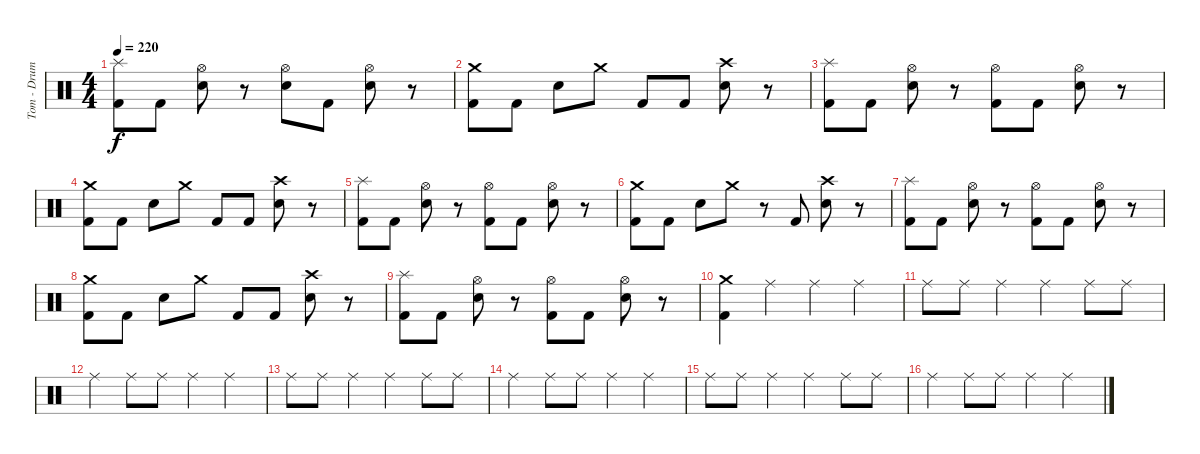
\track ("Tom - Drums" "Tom - Drum") {instrument percussion}
\staff {score}
\articulation defaults
\ts (4 4)
\tempo 220
\clef neutral
\ks c
("Splash (hit)" "Kick (hit) 2").8{dy f} "Kick (hit) 2".8 ("Hi-Hat (open)" "Electric Snare (hit)").8 r.8 ("Hi-Hat (open)" "Electric Snare (hit)").8 "Kick (hit) 2".8 ("Hi-Hat (open)" "Electric Snare (hit)").8 r.8 |
("Crash medium (hit)" "Kick (hit) 2").8 "Kick (hit) 2".8 "Electric Snare (hit)".8 "Crash medium (hit)".8 "Kick (hit) 2".8 "Kick (hit) 2".8 ("Crash high (hit)" "Electric Snare (hit)").8 r.8 |
("Splash (hit)" "Kick (hit) 2").8 "Kick (hit) 2".8 ("Hi-Hat (open)" "Electric Snare (hit)").8 r.8 ("Hi-Hat (open)" "Kick (hit) 2").8 "Kick (hit) 2".8 ("Hi-Hat (open)" "Electric Snare (hit)").8 r.8 |
("Crash medium (hit)" "Kick (hit) 2").8 "Kick (hit) 2".8 "Electric Snare (hit)".8 "Crash medium (hit)".8 "Kick (hit) 2".8 "Kick (hit) 2".8 ("Crash high (hit)" "Electric Snare (hit)").8 r.8 |
("Splash (hit)" "Kick (hit) 2").8 "Kick (hit) 2".8 ("Hi-Hat (open)" "Electric Snare (hit)").8 r.8 ("Hi-Hat (open)" "Kick (hit) 2").8 "Kick (hit) 2".8 ("Hi-Hat (open)" "Electric Snare (hit)").8 r.8 |
("Crash medium (hit)" "Kick (hit) 2").8 "Kick (hit) 2".8 "Electric Snare (hit)".8 "Crash medium (hit)".8 r.8 "Kick (hit) 2".8 ("Crash high (hit)" "Electric Snare (hit)").8 r.8 |
("Splash (hit)" "Kick (hit) 2").8 "Kick (hit) 2".8 ("Hi-Hat (open)" "Electric Snare (hit)").8 r.8 ("Hi-Hat (open)" "Kick (hit) 2").8 "Kick (hit) 2".8 ("Hi-Hat (open)" "Electric Snare (hit)").8 r.8 |
("Crash medium (hit)" "Kick (hit) 2").8 "Kick (hit) 2".8 "Electric Snare (hit)".8 "Crash medium (hit)".8 "Kick (hit) 2".8 "Kick (hit) 2".8 ("Crash high (hit)" "Electric Snare (hit)").8 r.8 |
("Splash (hit)" "Kick (hit) 2").8 "Kick (hit) 2".8 ("Hi-Hat (open)" "Electric Snare (hit)").8 r.8 ("Hi-Hat (open)" "Kick (hit) 2").8 "Kick (hit) 2".8 ("Hi-Hat (open)" "Electric Snare (hit)").8 r.8 |
("Crash medium (hit)" "Kick (hit) 2").4 "Ride (middle)".4 "Ride (middle)".4 "Ride (middle)".4 |
"Ride (middle)".8 "Ride (middle)".8 "Ride (middle)".4 "Ride (middle)".4 "Ride (middle)".8 "Ride (middle)".8 |
"Ride (middle)".4 "Ride (middle)".8 "Ride (middle)".8 "Ride (middle)".4 "Ride (middle)".4 |
"Ride (middle)".8 "Ride (middle)".8 "Ride (middle)".4 "Ride (middle)".4 "Ride (middle)".8 "Ride (middle)".8 |
"Ride (middle)".4 "Ride (middle)".8 "Ride (middle)".8 "Ride (middle)".4 "Ride (middle)".4 |
"Ride (middle)".8 "Ride (middle)".8 "Ride (middle)".4 "Ride (middle)".4 "Ride (middle)".8 "Ride (middle)".8 |
"Ride (middle)".4 "Ride (middle)".8 "Ride (middle)".8 "Ride (middle)".4 "Ride (middle)".4
